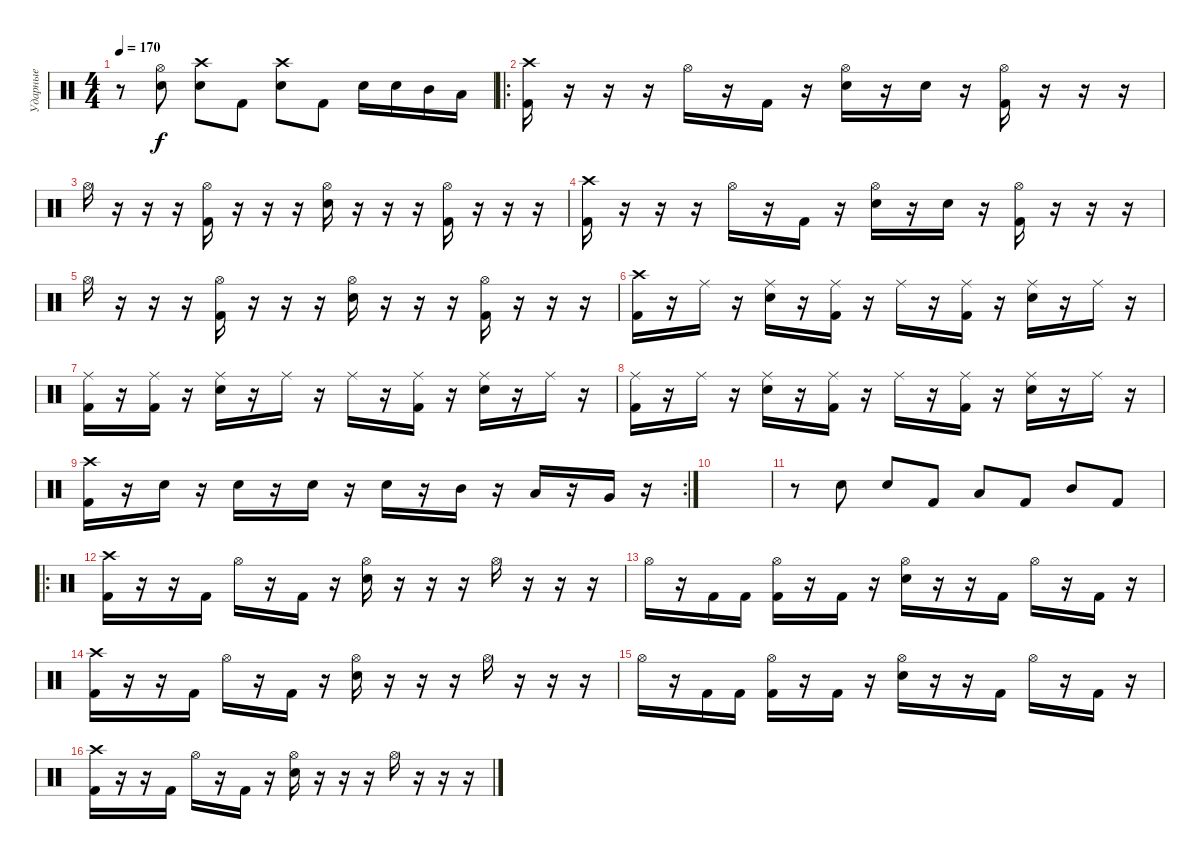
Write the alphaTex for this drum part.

\track ("Ударные" "Ударные") {instrument percussion}
\staff {score}
\articulation defaults
\ts (4 4)
\tempo 170
\clef neutral
\ks c
r.8{dy f} ("Hi-Hat (open)" "Electric Snare (hit)").8 ("Crash high (hit)" "Electric Snare (hit)").8 "Kick (hit) 2".8 ("Crash high (hit)" "Electric Snare (hit)").8 "Kick (hit) 2".8 "Electric Snare (hit)".16 "Electric Snare (hit)".16 "Mid Tom (hit)".16 "Low Tom (hit)".16 |
\ro
("Crash high (hit)" "Kick (hit) 2").16 r.16 r.16 r.16 "Hi-Hat (open)".16 r.16 "Kick (hit) 2".16 r.16 ("Hi-Hat (open)" "Electric Snare (hit)").16 r.16 "Electric Snare (hit)".16 r.16 ("Hi-Hat (open)" "Kick (hit) 2").16 r.16 r.16 r.16 |
"Hi-Hat (open)".16 r.16 r.16 r.16 ("Hi-Hat (open)" "Kick (hit) 2").16 r.16 r.16 r.16 ("Hi-Hat (open)" "Electric Snare (hit)").16 r.16 r.16 r.16 ("Hi-Hat (open)" "Kick (hit) 2").16 r.16 r.16 r.16 |
("Crash high (hit)" "Kick (hit) 2").16 r.16 r.16 r.16 "Hi-Hat (open)".16 r.16 "Kick (hit) 2".16 r.16 ("Hi-Hat (open)" "Electric Snare (hit)").16 r.16 "Electric Snare (hit)".16 r.16 ("Hi-Hat (open)" "Kick (hit) 2").16 r.16 r.16 r.16 |
"Hi-Hat (open)".16 r.16 r.16 r.16 ("Hi-Hat (open)" "Kick (hit) 2").16 r.16 r.16 r.16 ("Hi-Hat (open)" "Electric Snare (hit)").16 r.16 r.16 r.16 ("Hi-Hat (open)" "Kick (hit) 2").16 r.16 r.16 r.16 |
("Crash high (hit)" "Kick (hit) 2").16 r.16 "Ride (middle)".16 r.16 ("Ride (middle)" "Electric Snare (hit)").16 r.16 ("Ride (middle)" "Kick (hit) 2").16 r.16 "Ride (middle)".16 r.16 ("Ride (middle)" "Kick (hit) 2").16 r.16 ("Ride (middle)" "Electric Snare (hit)").16 r.16 "Ride (middle)".16 r.16 |
("Ride (middle)" "Kick (hit) 2").16 r.16 ("Ride (middle)" "Kick (hit) 2").16 r.16 ("Ride (middle)" "Electric Snare (hit)").16 r.16 "Ride (middle)".16 r.16 "Ride (middle)".16 r.16 ("Ride (middle)" "Kick (hit) 2").16 r.16 ("Ride (middle)" "Electric Snare (hit)").16 r.16 "Ride (middle)".16 r.16 |
("Ride (middle)" "Kick (hit) 2").16 r.16 "Ride (middle)".16 r.16 ("Ride (middle)" "Electric Snare (hit)").16 r.16 ("Ride (middle)" "Kick (hit) 2").16 r.16 "Ride (middle)".16 r.16 ("Ride (middle)" "Kick (hit) 2").16 r.16 ("Ride (middle)" "Electric Snare (hit)").16 r.16 "Ride (middle)".16 r.16 |
\rc 2
("Crash high (hit)" "Kick (hit) 2").16 r.16 "Electric Snare (hit)".16 r.16 "Electric Snare (hit)".16 r.16 "Electric Snare (hit)".16 r.16 "Electric Snare (hit)".16 r.16 "Mid Tom (hit)".16 r.16 "Low Tom (hit)".16 r.16 "Very Low Tom (hit)".16 r.16 |
|
r.8 "Electric Snare (hit)".8 "Electric Snare (hit)".8 "Kick (hit) 2".8 "Low Tom (hit)".8 "Kick (hit) 2".8 "Mid Tom (hit)".8 "Kick (hit) 2".8 |
\ro
("Crash high (hit)" "Kick (hit) 2").16 r.16 r.16 "Kick (hit) 2".16 "Hi-Hat (open)".16 r.16 "Kick (hit) 2".16 r.16 ("Hi-Hat (open)" "Electric Snare (hit)").16 r.16 r.16 r.16 "Hi-Hat (open)".16 r.16 r.16 r.16 |
"Hi-Hat (open)".16 r.16 "Kick (hit) 2".16 "Kick (hit) 2".16 ("Hi-Hat (open)" "Kick (hit) 2").16 r.16 "Kick (hit) 2".16 r.16 ("Hi-Hat (open)" "Electric Snare (hit)").16 r.16 r.16 "Kick (hit) 2".16 "Hi-Hat (open)".16 r.16 "Kick (hit) 2".16 r.16 |
("Crash high (hit)" "Kick (hit) 2").16 r.16 r.16 "Kick (hit) 2".16 "Hi-Hat (open)".16 r.16 "Kick (hit) 2".16 r.16 ("Hi-Hat (open)" "Electric Snare (hit)").16 r.16 r.16 r.16 "Hi-Hat (open)".16 r.16 r.16 r.16 |
"Hi-Hat (open)".16 r.16 "Kick (hit) 2".16 "Kick (hit) 2".16 ("Hi-Hat (open)" "Kick (hit) 2").16 r.16 "Kick (hit) 2".16 r.16 ("Hi-Hat (open)" "Electric Snare (hit)").16 r.16 r.16 "Kick (hit) 2".16 "Hi-Hat (open)".16 r.16 "Kick (hit) 2".16 r.16 |
("Crash high (hit)" "Kick (hit) 2").16 r.16 r.16 "Kick (hit) 2".16 "Hi-Hat (open)".16 r.16 "Kick (hit) 2".16 r.16 ("Hi-Hat (open)" "Electric Snare (hit)").16 r.16 r.16 r.16 "Hi-Hat (open)".16 r.16 r.16 r.16
